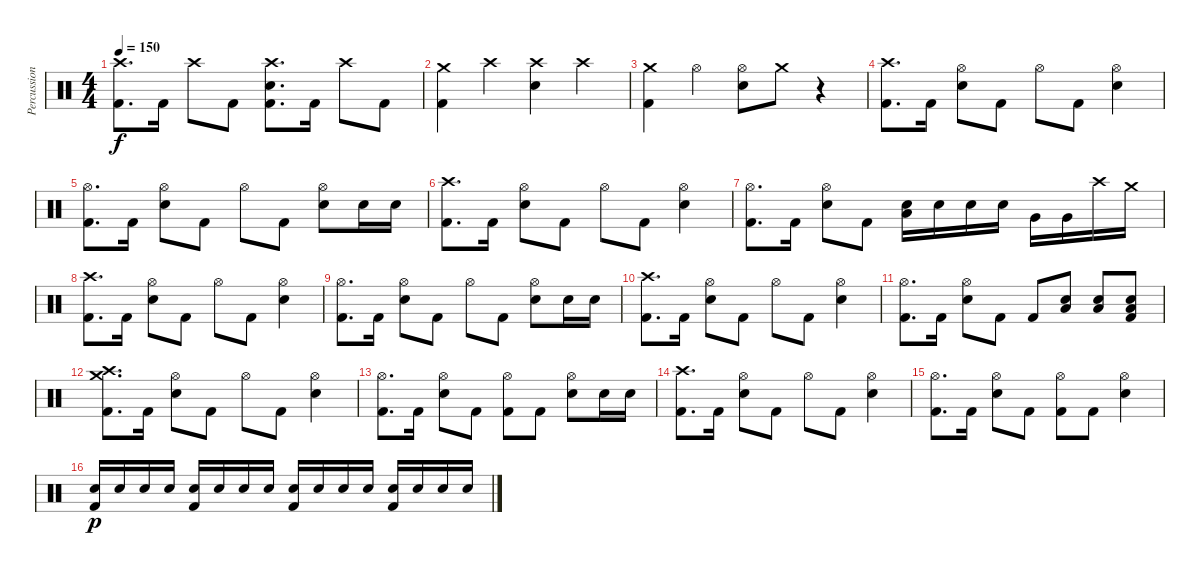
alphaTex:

\track ("Percussion" "Percussion") {instrument percussion}
\staff {score}
\articulation defaults
\ts (4 4)
\tempo 150
\clef neutral
\ks c
("Crash high (hit)" "Kick (hit) 2").8{d dy f} "Kick (hit) 2".16 "Crash high (hit)".8 "Kick (hit) 2".8 ("Crash high (hit)" "Electric Snare (hit)" "Kick (hit) 2").8{d} "Kick (hit) 2".16 "Crash high (hit)".8 "Kick (hit) 2".8 |
("Crash medium (hit)" "Kick (hit) 2").4 "Crash high (hit)".4 ("Crash high (hit)" "Electric Snare (hit)").4 "Crash high (hit)".4 |
("Crash medium (hit)" "Kick (hit) 2").4 "Hi-Hat (open)".4 ("Hi-Hat (open)" "Electric Snare (hit)").8 "Crash medium (hit)".8 r.4 |
("Crash high (hit)" "Kick (hit) 2").8{d} "Kick (hit) 2".16 ("Hi-Hat (open)" "Electric Snare (hit)").8 "Kick (hit) 2".8 "Hi-Hat (open)".8 "Kick (hit) 2".8 ("Hi-Hat (open)" "Electric Snare (hit)").4 |
("Hi-Hat (open)" "Kick (hit) 2").8{d} "Kick (hit) 2".16 ("Hi-Hat (open)" "Electric Snare (hit)").8 "Kick (hit) 2".8 "Hi-Hat (open)".8 "Kick (hit) 2".8 ("Hi-Hat (open)" "Electric Snare (hit)").8 "Electric Snare (hit)".16 "Electric Snare (hit)".16 |
("Crash high (hit)" "Kick (hit) 2").8{d} "Kick (hit) 2".16 ("Hi-Hat (open)" "Electric Snare (hit)").8 "Kick (hit) 2".8 "Hi-Hat (open)".8 "Kick (hit) 2".8 ("Hi-Hat (open)" "Electric Snare (hit)").4 |
("Hi-Hat (open)" "Kick (hit) 2").8{d} "Kick (hit) 2".16 ("Hi-Hat (open)" "Electric Snare (hit)").8 "Kick (hit) 2".8 ("Low Floor Tom (hit)" "Electric Snare (hit)").16 "Electric Snare (hit)".16 "Electric Snare (hit)".16 "Electric Snare (hit)".16 "Very Low Tom (hit)".16 "Very Low Tom (hit)".16 "Crash high (hit)".16 "Crash medium (hit)".16 |
("Crash high (hit)" "Kick (hit) 2").8{d} "Kick (hit) 2".16 ("Hi-Hat (open)" "Electric Snare (hit)").8 "Kick (hit) 2".8 "Hi-Hat (open)".8 "Kick (hit) 2".8 ("Hi-Hat (open)" "Electric Snare (hit)").4 |
("Hi-Hat (open)" "Kick (hit) 2").8{d} "Kick (hit) 2".16 ("Hi-Hat (open)" "Electric Snare (hit)").8 "Kick (hit) 2".8 "Hi-Hat (open)".8 "Kick (hit) 2".8 ("Hi-Hat (open)" "Electric Snare (hit)").8 "Electric Snare (hit)".16 "Electric Snare (hit)".16 |
("Crash high (hit)" "Kick (hit) 2").8{d} "Kick (hit) 2".16 ("Hi-Hat (open)" "Electric Snare (hit)").8 "Kick (hit) 2".8 "Hi-Hat (open)".8 "Kick (hit) 2".8 ("Hi-Hat (open)" "Electric Snare (hit)").4 |
("Hi-Hat (open)" "Kick (hit) 2").8{d} "Kick (hit) 2".16 ("Hi-Hat (open)" "Electric Snare (hit)").8 "Kick (hit) 2".8 "Kick (hit) 2".8 ("Low Floor Tom (hit)" "Electric Snare (hit)").8 ("Low Floor Tom (hit)" "Electric Snare (hit)").8 ("Low Floor Tom (hit)" "Electric Snare (hit)" "Kick (hit) 2").8 |
("Crash high (hit)" "Crash medium (hit)" "Kick (hit) 2").8{d} "Kick (hit) 2".16 ("Hi-Hat (open)" "Electric Snare (hit)").8 "Kick (hit) 2".8 "Hi-Hat (open)".8 "Kick (hit) 2".8 ("Hi-Hat (open)" "Electric Snare (hit)").4 |
("Hi-Hat (open)" "Kick (hit) 2").8{d} "Kick (hit) 2".16 ("Hi-Hat (open)" "Electric Snare (hit)").8 "Kick (hit) 2".8 ("Hi-Hat (open)" "Kick (hit) 2").8 "Kick (hit) 2".8 ("Hi-Hat (open)" "Electric Snare (hit)").8 "Electric Snare (hit)".16 "Electric Snare (hit)".16 |
("Crash high (hit)" "Kick (hit) 2").8{d} "Kick (hit) 2".16 ("Hi-Hat (open)" "Electric Snare (hit)").8 "Kick (hit) 2".8 "Hi-Hat (open)".8 "Kick (hit) 2".8 ("Hi-Hat (open)" "Electric Snare (hit)").4 |
("Hi-Hat (open)" "Kick (hit) 2").8{d} "Kick (hit) 2".16 ("Hi-Hat (open)" "Electric Snare (hit)").8 "Kick (hit) 2".8 ("Hi-Hat (open)" "Kick (hit) 2").8 "Kick (hit) 2".8 ("Hi-Hat (open)" "Electric Snare (hit)").4 |
("Electric Snare (hit)" "Kick (hit) 2").16{dy p} "Electric Snare (hit)".16 "Electric Snare (hit)".16 "Electric Snare (hit)".16 ("Electric Snare (hit)" "Kick (hit) 2").16 "Electric Snare (hit)".16 "Electric Snare (hit)".16 "Electric Snare (hit)".16 ("Electric Snare (hit)" "Kick (hit) 2").16 "Electric Snare (hit)".16 "Electric Snare (hit)".16 "Electric Snare (hit)".16 ("Electric Snare (hit)" "Kick (hit) 2").16 "Electric Snare (hit)".16 "Electric Snare (hit)".16 "Electric Snare (hit)".16
